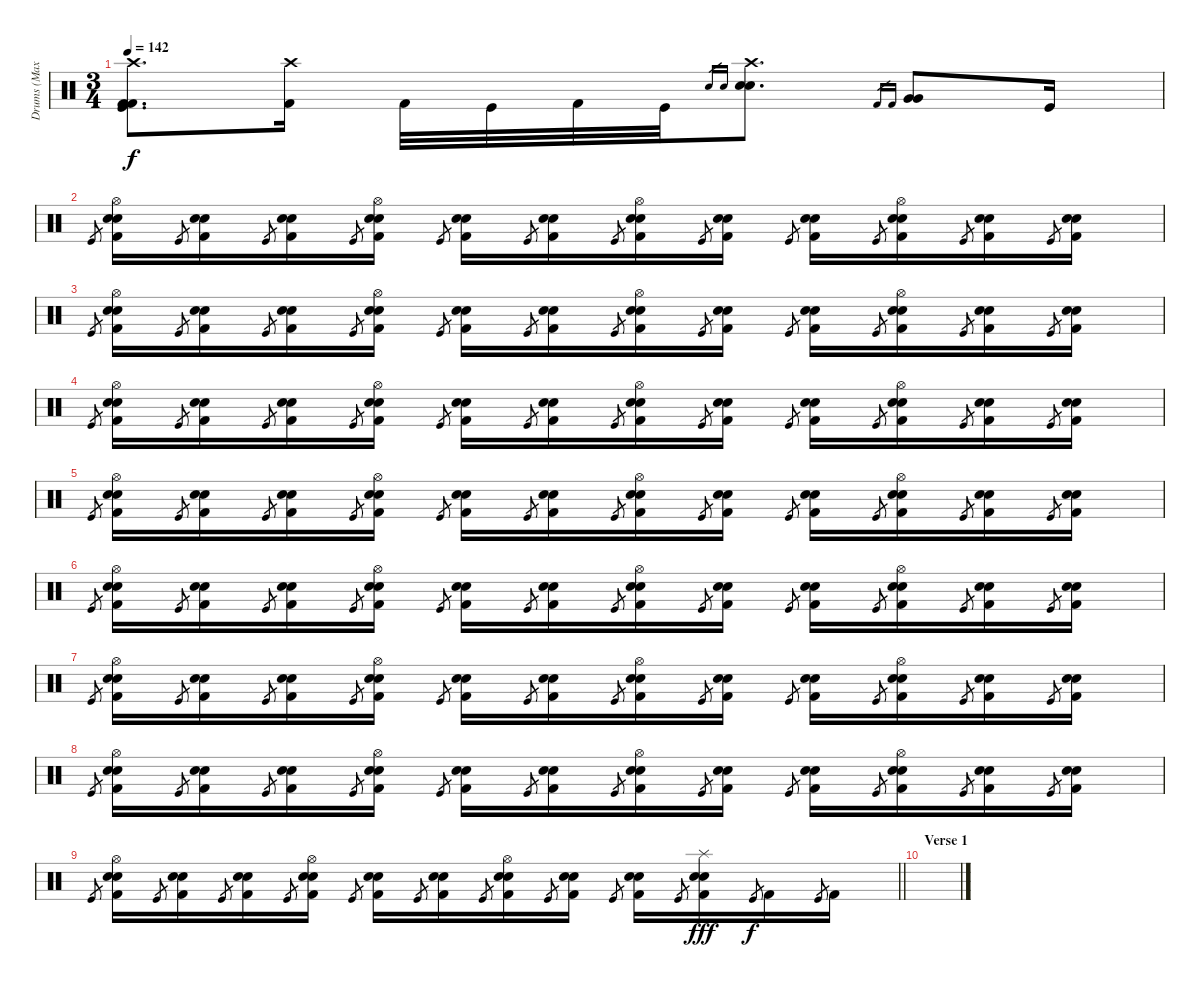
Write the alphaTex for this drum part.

\track ("Drums (Max overdub)" "Drums (Max") {instrument percussion}
\staff {score}
\articulation defaults
\ts (3 4)
\tempo 142
\clef neutral
\ks c
("Crash high (hit)" "Kick (hit)" "Kick (hit) 2" "Kick (hit) 2").8{d dy f} ("Crash high (hit)" "Kick (hit) 2").16 "Kick (hit) 2".32 "Kick (hit)".32 "Kick (hit) 2".32 "Kick (hit)".32 "Electric Snare (hit)".16{gr} "Snare (hit) 2".16{gr} ("Crash high (hit)" "Electric Snare (hit)" "Snare (hit) 2").8{d} "Kick (hit) 2".16{gr} "Kick (hit) 2".16{gr} ("Very Low Tom (hit)" "Very Low Tom (hit)").8 "Kick (hit)".16 |
"Kick (hit)".8{gr} ("Hi-Hat (open)" "Electric Snare (hit)" "Snare (hit) 2" "Kick (hit) 2").16 "Kick (hit)".8{gr} ("Electric Snare (hit)" "Snare (hit) 2" "Kick (hit) 2").16 "Kick (hit)".8{gr} ("Electric Snare (hit)" "Snare (hit) 2" "Kick (hit) 2").16 "Kick (hit)".8{gr} ("Hi-Hat (open)" "Electric Snare (hit)" "Snare (hit) 2" "Kick (hit) 2").16 "Kick (hit)".8{gr} ("Electric Snare (hit)" "Snare (hit) 2" "Kick (hit) 2").16 "Kick (hit)".8{gr} ("Electric Snare (hit)" "Snare (hit) 2" "Kick (hit) 2").16 "Kick (hit)".8{gr} ("Hi-Hat (open)" "Electric Snare (hit)" "Snare (hit) 2" "Kick (hit) 2").16 "Kick (hit)".8{gr} ("Electric Snare (hit)" "Snare (hit) 2" "Kick (hit) 2").16 "Kick (hit)".8{gr} ("Electric Snare (hit)" "Snare (hit) 2" "Kick (hit) 2").16 "Kick (hit)".8{gr} ("Hi-Hat (open)" "Electric Snare (hit)" "Snare (hit) 2" "Kick (hit) 2").16 "Kick (hit)".8{gr} ("Electric Snare (hit)" "Snare (hit) 2" "Kick (hit) 2").16 "Kick (hit)".8{gr} ("Electric Snare (hit)" "Snare (hit) 2" "Kick (hit) 2").16 |
"Kick (hit)".8{gr} ("Hi-Hat (open)" "Electric Snare (hit)" "Snare (hit) 2" "Kick (hit) 2").16 "Kick (hit)".8{gr} ("Electric Snare (hit)" "Snare (hit) 2" "Kick (hit) 2").16 "Kick (hit)".8{gr} ("Electric Snare (hit)" "Snare (hit) 2" "Kick (hit) 2").16 "Kick (hit)".8{gr} ("Hi-Hat (open)" "Electric Snare (hit)" "Snare (hit) 2" "Kick (hit) 2").16 "Kick (hit)".8{gr} ("Electric Snare (hit)" "Snare (hit) 2" "Kick (hit) 2").16 "Kick (hit)".8{gr} ("Electric Snare (hit)" "Snare (hit) 2" "Kick (hit) 2").16 "Kick (hit)".8{gr} ("Hi-Hat (open)" "Electric Snare (hit)" "Snare (hit) 2" "Kick (hit) 2").16 "Kick (hit)".8{gr} ("Electric Snare (hit)" "Snare (hit) 2" "Kick (hit) 2").16 "Kick (hit)".8{gr} ("Electric Snare (hit)" "Snare (hit) 2" "Kick (hit) 2").16 "Kick (hit)".8{gr} ("Hi-Hat (open)" "Electric Snare (hit)" "Snare (hit) 2" "Kick (hit) 2").16 "Kick (hit)".8{gr} ("Electric Snare (hit)" "Snare (hit) 2" "Kick (hit) 2").16 "Kick (hit)".8{gr} ("Electric Snare (hit)" "Snare (hit) 2" "Kick (hit) 2").16 |
"Kick (hit)".8{gr} ("Hi-Hat (open)" "Electric Snare (hit)" "Snare (hit) 2" "Kick (hit) 2").16 "Kick (hit)".8{gr} ("Electric Snare (hit)" "Snare (hit) 2" "Kick (hit) 2").16 "Kick (hit)".8{gr} ("Electric Snare (hit)" "Snare (hit) 2" "Kick (hit) 2").16 "Kick (hit)".8{gr} ("Hi-Hat (open)" "Electric Snare (hit)" "Snare (hit) 2" "Kick (hit) 2").16 "Kick (hit)".8{gr} ("Electric Snare (hit)" "Snare (hit) 2" "Kick (hit) 2").16 "Kick (hit)".8{gr} ("Electric Snare (hit)" "Snare (hit) 2" "Kick (hit) 2").16 "Kick (hit)".8{gr} ("Hi-Hat (open)" "Electric Snare (hit)" "Snare (hit) 2" "Kick (hit) 2").16 "Kick (hit)".8{gr} ("Electric Snare (hit)" "Snare (hit) 2" "Kick (hit) 2").16 "Kick (hit)".8{gr} ("Electric Snare (hit)" "Snare (hit) 2" "Kick (hit) 2").16 "Kick (hit)".8{gr} ("Hi-Hat (open)" "Electric Snare (hit)" "Snare (hit) 2" "Kick (hit) 2").16 "Kick (hit)".8{gr} ("Electric Snare (hit)" "Snare (hit) 2" "Kick (hit) 2").16 "Kick (hit)".8{gr} ("Electric Snare (hit)" "Snare (hit) 2" "Kick (hit) 2").16 |
"Kick (hit)".8{gr} ("Hi-Hat (open)" "Electric Snare (hit)" "Snare (hit) 2" "Kick (hit) 2").16 "Kick (hit)".8{gr} ("Electric Snare (hit)" "Snare (hit) 2" "Kick (hit) 2").16 "Kick (hit)".8{gr} ("Electric Snare (hit)" "Snare (hit) 2" "Kick (hit) 2").16 "Kick (hit)".8{gr} ("Hi-Hat (open)" "Electric Snare (hit)" "Snare (hit) 2" "Kick (hit) 2").16 "Kick (hit)".8{gr} ("Electric Snare (hit)" "Snare (hit) 2" "Kick (hit) 2").16 "Kick (hit)".8{gr} ("Electric Snare (hit)" "Snare (hit) 2" "Kick (hit) 2").16 "Kick (hit)".8{gr} ("Hi-Hat (open)" "Electric Snare (hit)" "Snare (hit) 2" "Kick (hit) 2").16 "Kick (hit)".8{gr} ("Electric Snare (hit)" "Snare (hit) 2" "Kick (hit) 2").16 "Kick (hit)".8{gr} ("Electric Snare (hit)" "Snare (hit) 2" "Kick (hit) 2").16 "Kick (hit)".8{gr} ("Hi-Hat (open)" "Electric Snare (hit)" "Snare (hit) 2" "Kick (hit) 2").16 "Kick (hit)".8{gr} ("Electric Snare (hit)" "Snare (hit) 2" "Kick (hit) 2").16 "Kick (hit)".8{gr} ("Electric Snare (hit)" "Snare (hit) 2" "Kick (hit) 2").16 |
"Kick (hit)".8{gr} ("Hi-Hat (open)" "Electric Snare (hit)" "Snare (hit) 2" "Kick (hit) 2").16 "Kick (hit)".8{gr} ("Electric Snare (hit)" "Snare (hit) 2" "Kick (hit) 2").16 "Kick (hit)".8{gr} ("Electric Snare (hit)" "Snare (hit) 2" "Kick (hit) 2").16 "Kick (hit)".8{gr} ("Hi-Hat (open)" "Electric Snare (hit)" "Snare (hit) 2" "Kick (hit) 2").16 "Kick (hit)".8{gr} ("Electric Snare (hit)" "Snare (hit) 2" "Kick (hit) 2").16 "Kick (hit)".8{gr} ("Electric Snare (hit)" "Snare (hit) 2" "Kick (hit) 2").16 "Kick (hit)".8{gr} ("Hi-Hat (open)" "Electric Snare (hit)" "Snare (hit) 2" "Kick (hit) 2").16 "Kick (hit)".8{gr} ("Electric Snare (hit)" "Snare (hit) 2" "Kick (hit) 2").16 "Kick (hit)".8{gr} ("Electric Snare (hit)" "Snare (hit) 2" "Kick (hit) 2").16 "Kick (hit)".8{gr} ("Hi-Hat (open)" "Electric Snare (hit)" "Snare (hit) 2" "Kick (hit) 2").16 "Kick (hit)".8{gr} ("Electric Snare (hit)" "Snare (hit) 2" "Kick (hit) 2").16 "Kick (hit)".8{gr} ("Electric Snare (hit)" "Snare (hit) 2" "Kick (hit) 2").16 |
"Kick (hit)".8{gr} ("Hi-Hat (open)" "Electric Snare (hit)" "Snare (hit) 2" "Kick (hit) 2").16 "Kick (hit)".8{gr} ("Electric Snare (hit)" "Snare (hit) 2" "Kick (hit) 2").16 "Kick (hit)".8{gr} ("Electric Snare (hit)" "Snare (hit) 2" "Kick (hit) 2").16 "Kick (hit)".8{gr} ("Hi-Hat (open)" "Electric Snare (hit)" "Snare (hit) 2" "Kick (hit) 2").16 "Kick (hit)".8{gr} ("Electric Snare (hit)" "Snare (hit) 2" "Kick (hit) 2").16 "Kick (hit)".8{gr} ("Electric Snare (hit)" "Snare (hit) 2" "Kick (hit) 2").16 "Kick (hit)".8{gr} ("Hi-Hat (open)" "Electric Snare (hit)" "Snare (hit) 2" "Kick (hit) 2").16 "Kick (hit)".8{gr} ("Electric Snare (hit)" "Snare (hit) 2" "Kick (hit) 2").16 "Kick (hit)".8{gr} ("Electric Snare (hit)" "Snare (hit) 2" "Kick (hit) 2").16 "Kick (hit)".8{gr} ("Hi-Hat (open)" "Electric Snare (hit)" "Snare (hit) 2" "Kick (hit) 2").16 "Kick (hit)".8{gr} ("Electric Snare (hit)" "Snare (hit) 2" "Kick (hit) 2").16 "Kick (hit)".8{gr} ("Electric Snare (hit)" "Snare (hit) 2" "Kick (hit) 2").16 |
"Kick (hit)".8{gr} ("Hi-Hat (open)" "Electric Snare (hit)" "Snare (hit) 2" "Kick (hit) 2").16 "Kick (hit)".8{gr} ("Electric Snare (hit)" "Snare (hit) 2" "Kick (hit) 2").16 "Kick (hit)".8{gr} ("Electric Snare (hit)" "Snare (hit) 2" "Kick (hit) 2").16 "Kick (hit)".8{gr} ("Hi-Hat (open)" "Electric Snare (hit)" "Snare (hit) 2" "Kick (hit) 2").16 "Kick (hit)".8{gr} ("Electric Snare (hit)" "Snare (hit) 2" "Kick (hit) 2").16 "Kick (hit)".8{gr} ("Electric Snare (hit)" "Snare (hit) 2" "Kick (hit) 2").16 "Kick (hit)".8{gr} ("Hi-Hat (open)" "Electric Snare (hit)" "Snare (hit) 2" "Kick (hit) 2").16 "Kick (hit)".8{gr} ("Electric Snare (hit)" "Snare (hit) 2" "Kick (hit) 2").16 "Kick (hit)".8{gr} ("Electric Snare (hit)" "Snare (hit) 2" "Kick (hit) 2").16 "Kick (hit)".8{gr} ("Hi-Hat (open)" "Electric Snare (hit)" "Snare (hit) 2" "Kick (hit) 2").16 "Kick (hit)".8{gr} ("Electric Snare (hit)" "Snare (hit) 2" "Kick (hit) 2").16 "Kick (hit)".8{gr} ("Electric Snare (hit)" "Snare (hit) 2" "Kick (hit) 2").16 |
\barLineRight lightlight "Kick (hit)".8{gr}
("Hi-Hat (open)" "Electric Snare (hit)" "Snare (hit) 2" "Kick (hit) 2").16 "Kick (hit)".8{gr} ("Electric Snare (hit)" "Snare (hit) 2" "Kick (hit) 2").16 "Kick (hit)".8{gr} ("Electric Snare (hit)" "Snare (hit) 2" "Kick (hit) 2").16 "Kick (hit)".8{gr} ("Hi-Hat (open)" "Electric Snare (hit)" "Snare (hit) 2" "Kick (hit) 2").16 "Kick (hit)".8{gr} ("Electric Snare (hit)" "Snare (hit) 2" "Kick (hit) 2").16 "Kick (hit)".8{gr} ("Electric Snare (hit)" "Snare (hit) 2" "Kick (hit) 2").16 "Kick (hit)".8{gr} ("Hi-Hat (open)" "Electric Snare (hit)" "Snare (hit) 2" "Kick (hit) 2").16 "Kick (hit)".8{gr} ("Electric Snare (hit)" "Snare (hit) 2" "Kick (hit) 2").16 "Kick (hit)".8{gr} ("Electric Snare (hit)" "Snare (hit) 2" "Kick (hit) 2").16 "Kick (hit)".8{gr} ("Splash (hit)" "Electric Snare (hit)" "Snare (hit) 2" "Kick (hit) 2").16{dy fff} "Kick (hit)".8{gr dy f} "Kick (hit) 2".16 "Kick (hit)".8{gr} "Kick (hit) 2".16 |
\section ("" "Verse 1")
